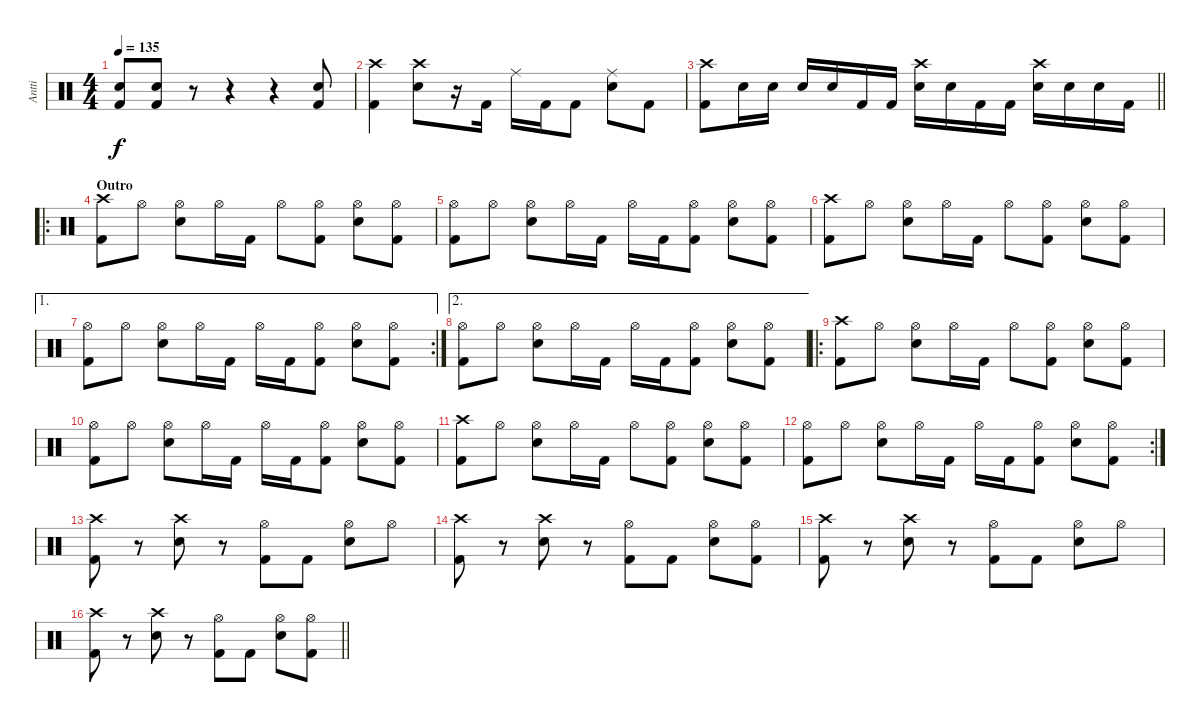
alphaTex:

\track ("Antti" "Antti") {instrument percussion}
\staff {score}
\articulation defaults
\ts (4 4)
\tempo 135
\clef neutral
\ks c
("Snare (hit) 2" "Kick (hit) 2").8{dy f} ("Snare (hit) 2" "Kick (hit) 2").8 r.8 r.4 r.4 ("Snare (hit) 2" "Kick (hit) 2").8 |
("Crash high (hit)" "Kick (hit) 2").4 ("Crash high (hit)" "Snare (hit) 2").8 r.16 "Kick (hit) 2".16 "Ride (middle)".16 "Kick (hit) 2".16 "Kick (hit) 2".8 ("Ride (middle)" "Snare (hit) 2").8 "Kick (hit) 2".8 |
\barLineRight lightlight
("Crash high (hit)" "Kick (hit) 2").8 "Snare (hit) 2".16 "Snare (hit) 2".16 "Snare (hit) 2".16 "Snare (hit) 2".16 "Kick (hit) 2".16 "Kick (hit) 2".16 ("Crash high (hit)" "Snare (hit) 2").16 "Snare (hit) 2".16 "Kick (hit) 2".16 "Kick (hit) 2".16 ("Crash high (hit)" "Snare (hit) 2").16 "Snare (hit) 2".16 "Snare (hit) 2".16 "Kick (hit) 2".16 |
\ro
\section ("" "Outro")
("Crash high (hit)" "Kick (hit) 2").8 "Hi-Hat (open)".8 ("Hi-Hat (open)" "Snare (hit) 2").8 "Hi-Hat (open)".16 "Kick (hit) 2".16 "Hi-Hat (open)".8 ("Hi-Hat (open)" "Kick (hit) 2").8 ("Hi-Hat (open)" "Snare (hit) 2").8 ("Hi-Hat (open)" "Kick (hit) 2").8 |
("Hi-Hat (open)" "Kick (hit) 2").8 "Hi-Hat (open)".8 ("Hi-Hat (open)" "Snare (hit) 2").8 "Hi-Hat (open)".16 "Kick (hit) 2".16 "Hi-Hat (open)".16 "Kick (hit) 2".16 ("Hi-Hat (open)" "Kick (hit) 2").8 ("Hi-Hat (open)" "Snare (hit) 2").8 ("Hi-Hat (open)" "Kick (hit) 2").8 |
("Crash high (hit)" "Kick (hit) 2").8 "Hi-Hat (open)".8 ("Hi-Hat (open)" "Snare (hit) 2").8 "Hi-Hat (open)".16 "Kick (hit) 2".16 "Hi-Hat (open)".8 ("Hi-Hat (open)" "Kick (hit) 2").8 ("Hi-Hat (open)" "Snare (hit) 2").8 ("Hi-Hat (open)" "Kick (hit) 2").8 |
\ae 1
\rc 2
("Hi-Hat (open)" "Kick (hit) 2").8 "Hi-Hat (open)".8 ("Hi-Hat (open)" "Snare (hit) 2").8 "Hi-Hat (open)".16 "Kick (hit) 2".16 "Hi-Hat (open)".16 "Kick (hit) 2".16 ("Hi-Hat (open)" "Kick (hit) 2").8 ("Hi-Hat (open)" "Snare (hit) 2").8 ("Hi-Hat (open)" "Kick (hit) 2").8 |
\ae 2
("Hi-Hat (open)" "Kick (hit) 2").8 "Hi-Hat (open)".8 ("Hi-Hat (open)" "Snare (hit) 2").8 "Hi-Hat (open)".16 "Kick (hit) 2".16 "Hi-Hat (open)".16 "Kick (hit) 2".16 ("Hi-Hat (open)" "Kick (hit) 2").8 ("Hi-Hat (open)" "Snare (hit) 2").8 ("Hi-Hat (open)" "Kick (hit) 2").8 |
\ro
("Crash high (hit)" "Kick (hit) 2").8 "Hi-Hat (open)".8 ("Hi-Hat (open)" "Snare (hit) 2").8 "Hi-Hat (open)".16 "Kick (hit) 2".16 "Hi-Hat (open)".8 ("Hi-Hat (open)" "Kick (hit) 2").8 ("Hi-Hat (open)" "Snare (hit) 2").8 ("Hi-Hat (open)" "Kick (hit) 2").8 |
("Hi-Hat (open)" "Kick (hit) 2").8 "Hi-Hat (open)".8 ("Hi-Hat (open)" "Snare (hit) 2").8 "Hi-Hat (open)".16 "Kick (hit) 2".16 "Hi-Hat (open)".16 "Kick (hit) 2".16 ("Hi-Hat (open)" "Kick (hit) 2").8 ("Hi-Hat (open)" "Snare (hit) 2").8 ("Hi-Hat (open)" "Kick (hit) 2").8 |
("Crash high (hit)" "Kick (hit) 2").8 "Hi-Hat (open)".8 ("Hi-Hat (open)" "Snare (hit) 2").8 "Hi-Hat (open)".16 "Kick (hit) 2".16 "Hi-Hat (open)".8 ("Hi-Hat (open)" "Kick (hit) 2").8 ("Hi-Hat (open)" "Snare (hit) 2").8 ("Hi-Hat (open)" "Kick (hit) 2").8 |
\rc 2
("Hi-Hat (open)" "Kick (hit) 2").8 "Hi-Hat (open)".8 ("Hi-Hat (open)" "Snare (hit) 2").8 "Hi-Hat (open)".16 "Kick (hit) 2".16 "Hi-Hat (open)".16 "Kick (hit) 2".16 ("Hi-Hat (open)" "Kick (hit) 2").8 ("Hi-Hat (open)" "Snare (hit) 2").8 ("Hi-Hat (open)" "Kick (hit) 2").8 |
("Crash high (hit)" "Kick (hit) 2").8 r.8 ("Crash high (hit)" "Snare (hit) 2").8 r.8 ("Hi-Hat (open)" "Kick (hit) 2").8 "Kick (hit) 2".8 ("Hi-Hat (open)" "Snare (hit) 2").8 "Hi-Hat (open)".8 |
("Crash high (hit)" "Kick (hit) 2").8 r.8 ("Crash high (hit)" "Snare (hit) 2").8 r.8 ("Hi-Hat (open)" "Kick (hit) 2").8 "Kick (hit) 2".8 ("Hi-Hat (open)" "Snare (hit) 2").8 ("Hi-Hat (open)" "Kick (hit) 2").8 |
("Crash high (hit)" "Kick (hit) 2").8 r.8 ("Crash high (hit)" "Snare (hit) 2").8 r.8 ("Hi-Hat (open)" "Kick (hit) 2").8 "Kick (hit) 2".8 ("Hi-Hat (open)" "Snare (hit) 2").8 "Hi-Hat (open)".8 |
\barLineRight lightlight
("Crash high (hit)" "Kick (hit) 2").8 r.8 ("Crash high (hit)" "Snare (hit) 2").8 r.8 ("Hi-Hat (open)" "Kick (hit) 2").8 "Kick (hit) 2".8 ("Hi-Hat (open)" "Snare (hit) 2").8 ("Hi-Hat (open)" "Kick (hit) 2").8
